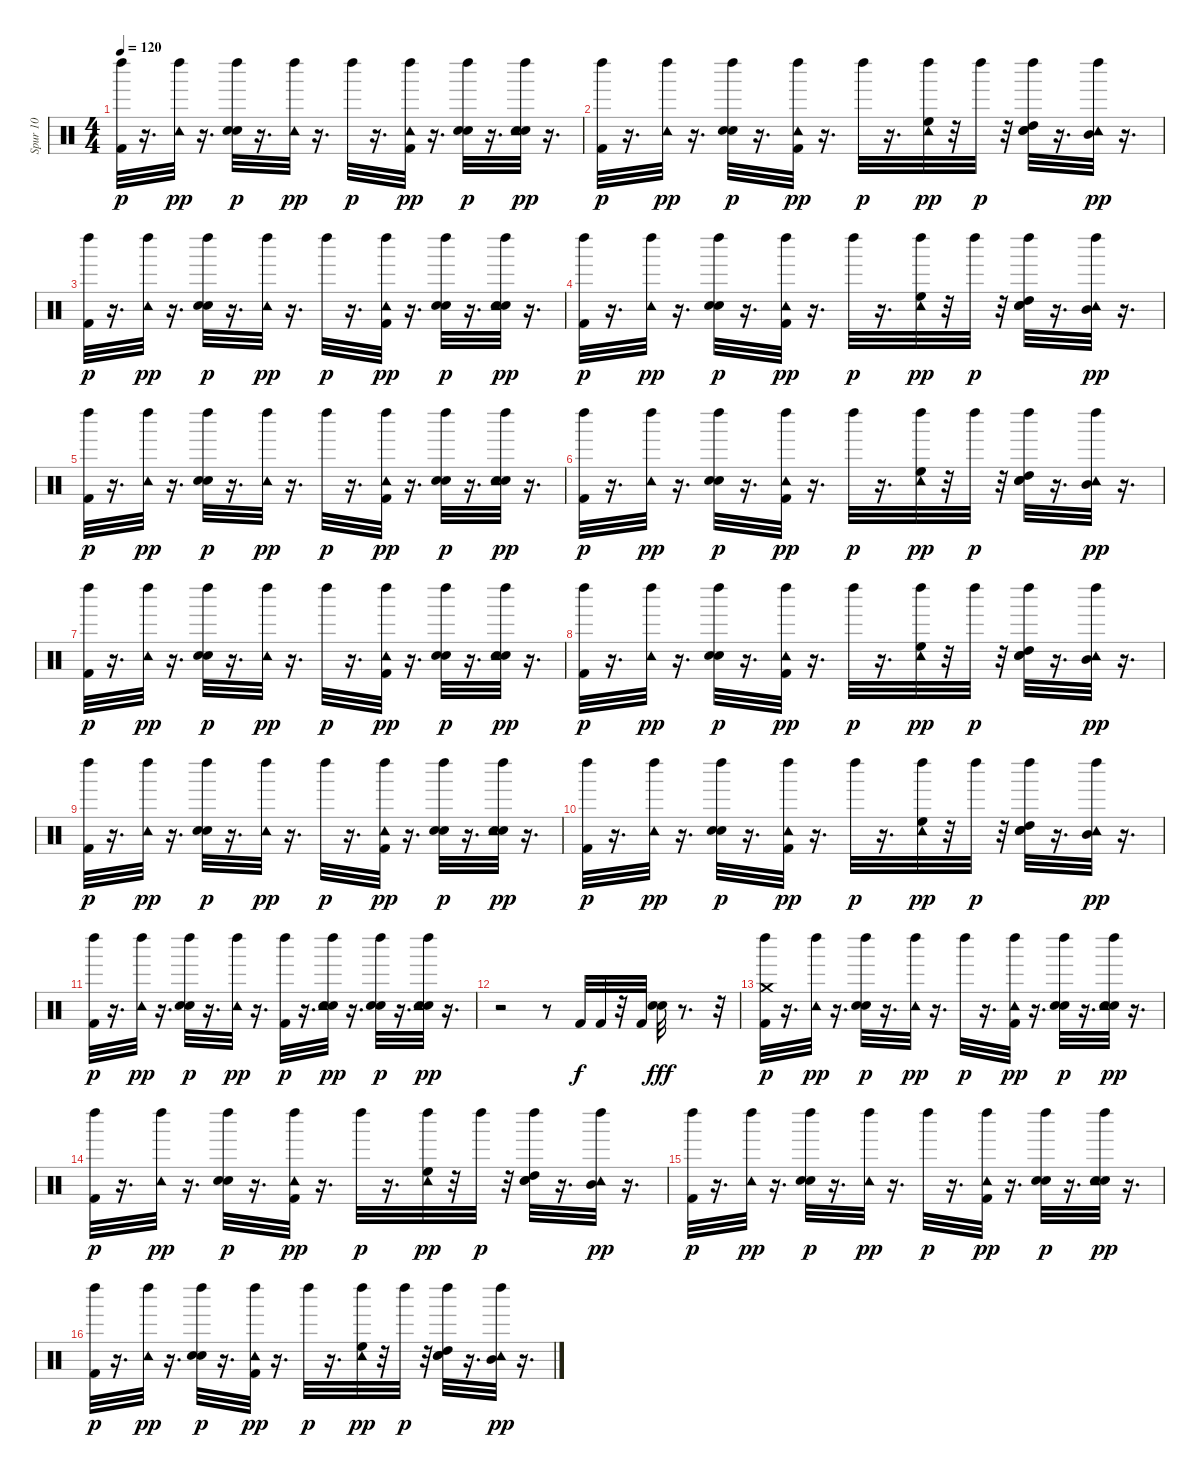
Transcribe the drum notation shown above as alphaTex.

\track ("Spur 10" "Spur 10") {instrument percussion}
\staff {score}
\articulation defaults
\ts (4 4)
\tempo 120
\clef neutral
\ks c
("Kick (hit) 2" "Left Maraca (hit)").32{dy p} r.16{d} ("Tambourine (hit)" "Left Maraca (hit)").32{dy pp} r.16{d} ("Hand Clap (hit)" "Electric Snare (hit)" "Left Maraca (hit)").32{dy p} r.16{d} ("Tambourine (hit)" "Left Maraca (hit)").32{dy pp} r.16{d} "Left Maraca (hit)".32{dy p} r.16{d} ("Kick (hit) 2" "Tambourine (hit)" "Left Maraca (hit)").32{dy pp} r.16{d} ("Hand Clap (hit)" "Electric Snare (hit)" "Left Maraca (hit)").32{dy p} r.16{d} ("Hand Clap (hit)" "Electric Snare (hit)" "Tambourine (hit)" "Left Maraca (hit)").32{dy pp} r.16{d} |
("Kick (hit) 2" "Left Maraca (hit)").32{dy p} r.16{d} ("Tambourine (hit)" "Left Maraca (hit)").32{dy pp} r.16{d} ("Hand Clap (hit)" "Electric Snare (hit)" "Left Maraca (hit)").32{dy p} r.16{d} ("Kick (hit) 2" "Tambourine (hit)" "Left Maraca (hit)").32{dy pp} r.16{d} "Left Maraca (hit)".32{dy p} r.16{d} ("High Floor Tom (hit)" "Tambourine (hit)" "Left Maraca (hit)").32{dy pp} r.32 "Left Maraca (hit)".32{dy p} r.32 ("Hand Clap (hit)" "Electric Snare (hit)" "High Tom (hit)" "Left Maraca (hit)").32 r.16{d} ("Mid Tom (hit)" "Tambourine (hit)" "Left Maraca (hit)").32{dy pp} r.16{d} |
("Kick (hit) 2" "Left Maraca (hit)").32{dy p} r.16{d} ("Tambourine (hit)" "Left Maraca (hit)").32{dy pp} r.16{d} ("Hand Clap (hit)" "Electric Snare (hit)" "Left Maraca (hit)").32{dy p} r.16{d} ("Tambourine (hit)" "Left Maraca (hit)").32{dy pp} r.16{d} "Left Maraca (hit)".32{dy p} r.16{d} ("Kick (hit) 2" "Tambourine (hit)" "Left Maraca (hit)").32{dy pp} r.16{d} ("Hand Clap (hit)" "Electric Snare (hit)" "Left Maraca (hit)").32{dy p} r.16{d} ("Hand Clap (hit)" "Electric Snare (hit)" "Tambourine (hit)" "Left Maraca (hit)").32{dy pp} r.16{d} |
("Kick (hit) 2" "Left Maraca (hit)").32{dy p} r.16{d} ("Tambourine (hit)" "Left Maraca (hit)").32{dy pp} r.16{d} ("Hand Clap (hit)" "Electric Snare (hit)" "Left Maraca (hit)").32{dy p} r.16{d} ("Kick (hit) 2" "Tambourine (hit)" "Left Maraca (hit)").32{dy pp} r.16{d} "Left Maraca (hit)".32{dy p} r.16{d} ("High Floor Tom (hit)" "Tambourine (hit)" "Left Maraca (hit)").32{dy pp} r.32 "Left Maraca (hit)".32{dy p} r.32 ("Hand Clap (hit)" "Electric Snare (hit)" "High Tom (hit)" "Left Maraca (hit)").32 r.16{d} ("Mid Tom (hit)" "Tambourine (hit)" "Left Maraca (hit)").32{dy pp} r.16{d} |
("Kick (hit) 2" "Left Maraca (hit)").32{dy p} r.16{d} ("Tambourine (hit)" "Left Maraca (hit)").32{dy pp} r.16{d} ("Hand Clap (hit)" "Electric Snare (hit)" "Left Maraca (hit)").32{dy p} r.16{d} ("Tambourine (hit)" "Left Maraca (hit)").32{dy pp} r.16{d} "Left Maraca (hit)".32{dy p} r.16{d} ("Kick (hit) 2" "Tambourine (hit)" "Left Maraca (hit)").32{dy pp} r.16{d} ("Hand Clap (hit)" "Electric Snare (hit)" "Left Maraca (hit)").32{dy p} r.16{d} ("Hand Clap (hit)" "Electric Snare (hit)" "Tambourine (hit)" "Left Maraca (hit)").32{dy pp} r.16{d} |
("Kick (hit) 2" "Left Maraca (hit)").32{dy p} r.16{d} ("Tambourine (hit)" "Left Maraca (hit)").32{dy pp} r.16{d} ("Hand Clap (hit)" "Electric Snare (hit)" "Left Maraca (hit)").32{dy p} r.16{d} ("Kick (hit) 2" "Tambourine (hit)" "Left Maraca (hit)").32{dy pp} r.16{d} "Left Maraca (hit)".32{dy p} r.16{d} ("High Floor Tom (hit)" "Tambourine (hit)" "Left Maraca (hit)").32{dy pp} r.32 "Left Maraca (hit)".32{dy p} r.32 ("Hand Clap (hit)" "Electric Snare (hit)" "High Tom (hit)" "Left Maraca (hit)").32 r.16{d} ("Mid Tom (hit)" "Tambourine (hit)" "Left Maraca (hit)").32{dy pp} r.16{d} |
("Kick (hit) 2" "Left Maraca (hit)").32{dy p} r.16{d} ("Tambourine (hit)" "Left Maraca (hit)").32{dy pp} r.16{d} ("Hand Clap (hit)" "Electric Snare (hit)" "Left Maraca (hit)").32{dy p} r.16{d} ("Tambourine (hit)" "Left Maraca (hit)").32{dy pp} r.16{d} "Left Maraca (hit)".32{dy p} r.16{d} ("Kick (hit) 2" "Tambourine (hit)" "Left Maraca (hit)").32{dy pp} r.16{d} ("Hand Clap (hit)" "Electric Snare (hit)" "Left Maraca (hit)").32{dy p} r.16{d} ("Hand Clap (hit)" "Electric Snare (hit)" "Tambourine (hit)" "Left Maraca (hit)").32{dy pp} r.16{d} |
("Kick (hit) 2" "Left Maraca (hit)").32{dy p} r.16{d} ("Tambourine (hit)" "Left Maraca (hit)").32{dy pp} r.16{d} ("Hand Clap (hit)" "Electric Snare (hit)" "Left Maraca (hit)").32{dy p} r.16{d} ("Kick (hit) 2" "Tambourine (hit)" "Left Maraca (hit)").32{dy pp} r.16{d} "Left Maraca (hit)".32{dy p} r.16{d} ("High Floor Tom (hit)" "Tambourine (hit)" "Left Maraca (hit)").32{dy pp} r.32 "Left Maraca (hit)".32{dy p} r.32 ("Hand Clap (hit)" "Electric Snare (hit)" "High Tom (hit)" "Left Maraca (hit)").32 r.16{d} ("Mid Tom (hit)" "Tambourine (hit)" "Left Maraca (hit)").32{dy pp} r.16{d} |
("Kick (hit) 2" "Left Maraca (hit)").32{dy p} r.16{d} ("Tambourine (hit)" "Left Maraca (hit)").32{dy pp} r.16{d} ("Hand Clap (hit)" "Electric Snare (hit)" "Left Maraca (hit)").32{dy p} r.16{d} ("Tambourine (hit)" "Left Maraca (hit)").32{dy pp} r.16{d} "Left Maraca (hit)".32{dy p} r.16{d} ("Kick (hit) 2" "Tambourine (hit)" "Left Maraca (hit)").32{dy pp} r.16{d} ("Hand Clap (hit)" "Electric Snare (hit)" "Left Maraca (hit)").32{dy p} r.16{d} ("Hand Clap (hit)" "Electric Snare (hit)" "Tambourine (hit)" "Left Maraca (hit)").32{dy pp} r.16{d} |
("Kick (hit) 2" "Left Maraca (hit)").32{dy p} r.16{d} ("Tambourine (hit)" "Left Maraca (hit)").32{dy pp} r.16{d} ("Hand Clap (hit)" "Electric Snare (hit)" "Left Maraca (hit)").32{dy p} r.16{d} ("Kick (hit) 2" "Tambourine (hit)" "Left Maraca (hit)").32{dy pp} r.16{d} "Left Maraca (hit)".32{dy p} r.16{d} ("High Floor Tom (hit)" "Tambourine (hit)" "Left Maraca (hit)").32{dy pp} r.32 "Left Maraca (hit)".32{dy p} r.32 ("Hand Clap (hit)" "Electric Snare (hit)" "High Tom (hit)" "Left Maraca (hit)").32 r.16{d} ("Mid Tom (hit)" "Tambourine (hit)" "Left Maraca (hit)").32{dy pp} r.16{d} |
("Kick (hit) 2" "Left Maraca (hit)").32{dy p} r.16{d} ("Tambourine (hit)" "Left Maraca (hit)").32{dy pp} r.16{d} ("Hand Clap (hit)" "Electric Snare (hit)" "Left Maraca (hit)").32{dy p} r.16{d} ("Tambourine (hit)" "Left Maraca (hit)").32{dy pp} r.16{d} ("Kick (hit) 2" "Left Maraca (hit)").32{dy p} r.16{d} ("Hand Clap (hit)" "Electric Snare (hit)" "Tambourine (hit)" "Left Maraca (hit)").32{dy pp} r.16{d} ("Hand Clap (hit)" "Electric Snare (hit)" "Left Maraca (hit)").32{dy p} r.16{d} ("Hand Clap (hit)" "Electric Snare (hit)" "Tambourine (hit)" "Left Maraca (hit)").32{dy pp} r.16{d} |
r.2 r.8 "Kick (hit) 2".32{dy f} "Kick (hit) 2".32 r.32 "Kick (hit) 2".32 ("Hand Clap (hit)" "Electric Snare (hit)").32{dy fff} r.8{d} r.32 |
("Kick (hit) 2" "Crash medium (hit)" "Left Maraca (hit)").32{dy p} r.16{d} ("Tambourine (hit)" "Left Maraca (hit)").32{dy pp} r.16{d} ("Hand Clap (hit)" "Electric Snare (hit)" "Left Maraca (hit)").32{dy p} r.16{d} ("Tambourine (hit)" "Left Maraca (hit)").32{dy pp} r.16{d} "Left Maraca (hit)".32{dy p} r.16{d} ("Kick (hit) 2" "Tambourine (hit)" "Left Maraca (hit)").32{dy pp} r.16{d} ("Hand Clap (hit)" "Electric Snare (hit)" "Left Maraca (hit)").32{dy p} r.16{d} ("Hand Clap (hit)" "Electric Snare (hit)" "Tambourine (hit)" "Left Maraca (hit)").32{dy pp} r.16{d} |
("Kick (hit) 2" "Left Maraca (hit)").32{dy p} r.16{d} ("Tambourine (hit)" "Left Maraca (hit)").32{dy pp} r.16{d} ("Hand Clap (hit)" "Electric Snare (hit)" "Left Maraca (hit)").32{dy p} r.16{d} ("Kick (hit) 2" "Tambourine (hit)" "Left Maraca (hit)").32{dy pp} r.16{d} "Left Maraca (hit)".32{dy p} r.16{d} ("High Floor Tom (hit)" "Tambourine (hit)" "Left Maraca (hit)").32{dy pp} r.32 "Left Maraca (hit)".32{dy p} r.32 ("Hand Clap (hit)" "Electric Snare (hit)" "High Tom (hit)" "Left Maraca (hit)").32 r.16{d} ("Mid Tom (hit)" "Tambourine (hit)" "Left Maraca (hit)").32{dy pp} r.16{d} |
("Kick (hit) 2" "Left Maraca (hit)").32{dy p} r.16{d} ("Tambourine (hit)" "Left Maraca (hit)").32{dy pp} r.16{d} ("Hand Clap (hit)" "Electric Snare (hit)" "Left Maraca (hit)").32{dy p} r.16{d} ("Tambourine (hit)" "Left Maraca (hit)").32{dy pp} r.16{d} "Left Maraca (hit)".32{dy p} r.16{d} ("Kick (hit) 2" "Tambourine (hit)" "Left Maraca (hit)").32{dy pp} r.16{d} ("Hand Clap (hit)" "Electric Snare (hit)" "Left Maraca (hit)").32{dy p} r.16{d} ("Hand Clap (hit)" "Electric Snare (hit)" "Tambourine (hit)" "Left Maraca (hit)").32{dy pp} r.16{d} |
("Kick (hit) 2" "Left Maraca (hit)").32{dy p} r.16{d} ("Tambourine (hit)" "Left Maraca (hit)").32{dy pp} r.16{d} ("Hand Clap (hit)" "Electric Snare (hit)" "Left Maraca (hit)").32{dy p} r.16{d} ("Kick (hit) 2" "Tambourine (hit)" "Left Maraca (hit)").32{dy pp} r.16{d} "Left Maraca (hit)".32{dy p} r.16{d} ("High Floor Tom (hit)" "Tambourine (hit)" "Left Maraca (hit)").32{dy pp} r.32 "Left Maraca (hit)".32{dy p} r.32 ("Hand Clap (hit)" "Electric Snare (hit)" "High Tom (hit)" "Left Maraca (hit)").32 r.16{d} ("Mid Tom (hit)" "Tambourine (hit)" "Left Maraca (hit)").32{dy pp} r.16{d}
